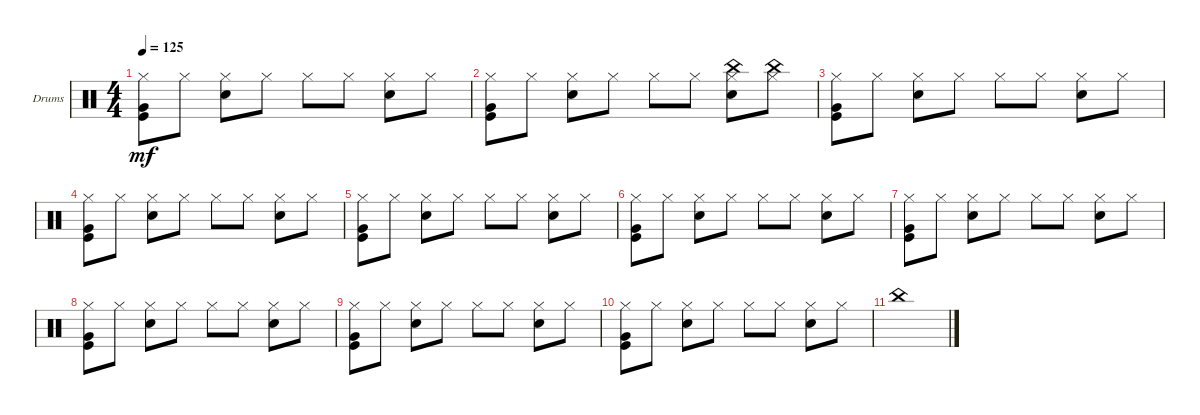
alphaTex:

\defaultSystemsLayout 4
\bracketExtendMode groupsimilarinstruments
\firstSystemTrackNameOrientation horizontal
\otherSystemsTrackNameOrientation horizontal
\track ("Drumkit" "Drums") {instrument percussion}
\staff {score}
\articulation defaults
\ts (4 4)
\tempo 125
\clef neutral
\ks c
("Hi-Hat (closed)" "Very Low Tom (hit)" "Kick (hit)").8{dy mf} "Hi-Hat (closed)".8 ("Hi-Hat (closed)" "Snare (hit) 2").8 "Hi-Hat (closed)".8 "Hi-Hat (closed)".8 "Hi-Hat (closed)".8 ("Hi-Hat (closed)" "Snare (hit) 2").8 "Hi-Hat (closed)".8 |
("Hi-Hat (closed)" "Very Low Tom (hit)" "Kick (hit)").8 "Hi-Hat (closed)".8 ("Hi-Hat (closed)" "Snare (hit) 2").8 "Hi-Hat (closed)".8 "Hi-Hat (closed)".8 "Hi-Hat (closed)".8 ("Hi-Hat (closed)" "Snare (hit) 2" "China (hit)").8 ("Hi-Hat (closed)" "China (hit)").8 |
("Hi-Hat (closed)" "Very Low Tom (hit)" "Kick (hit)").8 "Hi-Hat (closed)".8 ("Hi-Hat (closed)" "Snare (hit) 2").8 "Hi-Hat (closed)".8 "Hi-Hat (closed)".8 "Hi-Hat (closed)".8 ("Hi-Hat (closed)" "Snare (hit) 2").8 "Hi-Hat (closed)".8 |
("Hi-Hat (closed)" "Very Low Tom (hit)" "Kick (hit)").8 "Hi-Hat (closed)".8 ("Hi-Hat (closed)" "Snare (hit) 2").8 "Hi-Hat (closed)".8 "Hi-Hat (closed)".8 "Hi-Hat (closed)".8 ("Hi-Hat (closed)" "Snare (hit) 2").8 "Hi-Hat (closed)".8 |
("Hi-Hat (closed)" "Very Low Tom (hit)" "Kick (hit)").8 "Hi-Hat (closed)".8 ("Hi-Hat (closed)" "Snare (hit) 2").8 "Hi-Hat (closed)".8 "Hi-Hat (closed)".8 "Hi-Hat (closed)".8 ("Hi-Hat (closed)" "Snare (hit) 2").8 "Hi-Hat (closed)".8 |
("Hi-Hat (closed)" "Very Low Tom (hit)" "Kick (hit)").8 "Hi-Hat (closed)".8 ("Hi-Hat (closed)" "Snare (hit) 2").8 "Hi-Hat (closed)".8 "Hi-Hat (closed)".8 "Hi-Hat (closed)".8 ("Hi-Hat (closed)" "Snare (hit) 2").8 "Hi-Hat (closed)".8 |
("Hi-Hat (closed)" "Very Low Tom (hit)" "Kick (hit)").8 "Hi-Hat (closed)".8 ("Hi-Hat (closed)" "Snare (hit) 2").8 "Hi-Hat (closed)".8 "Hi-Hat (closed)".8 "Hi-Hat (closed)".8 ("Hi-Hat (closed)" "Snare (hit) 2").8 "Hi-Hat (closed)".8 |
("Hi-Hat (closed)" "Very Low Tom (hit)" "Kick (hit)").8 "Hi-Hat (closed)".8 ("Hi-Hat (closed)" "Snare (hit) 2").8 "Hi-Hat (closed)".8 "Hi-Hat (closed)".8 "Hi-Hat (closed)".8 ("Hi-Hat (closed)" "Snare (hit) 2").8 "Hi-Hat (closed)".8 |
("Hi-Hat (closed)" "Very Low Tom (hit)" "Kick (hit)").8 "Hi-Hat (closed)".8 ("Hi-Hat (closed)" "Snare (hit) 2").8 "Hi-Hat (closed)".8 "Hi-Hat (closed)".8 "Hi-Hat (closed)".8 ("Hi-Hat (closed)" "Snare (hit) 2").8 "Hi-Hat (closed)".8 |
("Hi-Hat (closed)" "Very Low Tom (hit)" "Kick (hit)").8 "Hi-Hat (closed)".8 ("Hi-Hat (closed)" "Snare (hit) 2").8 "Hi-Hat (closed)".8 "Hi-Hat (closed)".8 "Hi-Hat (closed)".8 ("Hi-Hat (closed)" "Snare (hit) 2").8 "Hi-Hat (closed)".8 |
"China (hit)".1
